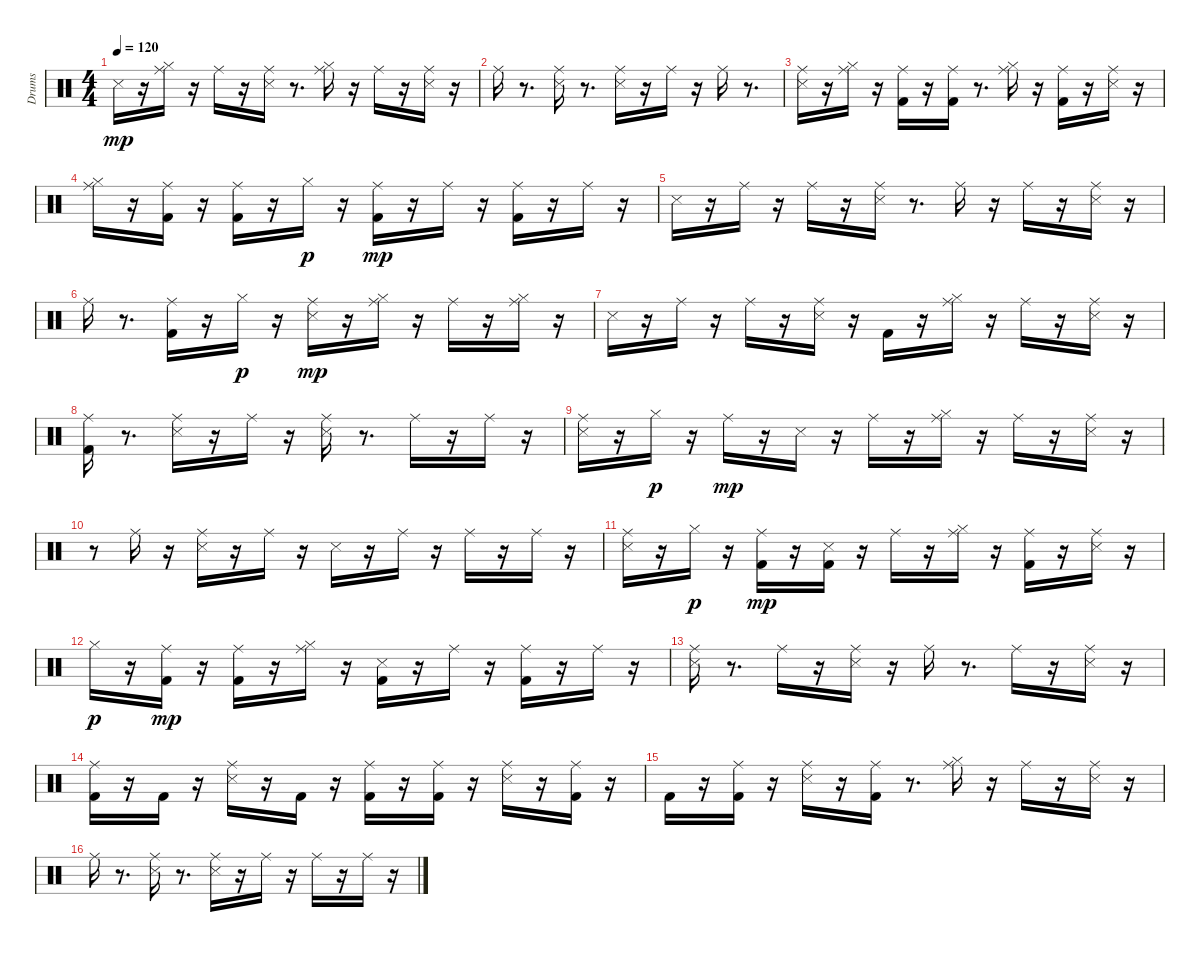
\track ("Drums  " "Drums  ") {instrument percussion}
\staff {score}
\articulation defaults
\ts (4 4)
\tempo 120
\clef neutral
\ks c "Snare (side stick) 3".16{dy mp}
r.16 ("Hi-Hat (closed)" "Ride (middle)").16 r.16 "Ride (middle)".16 r.16 ("Snare (side stick) 3" "Ride (middle)").16 r.8{d} ("Hi-Hat (closed)" "Ride (middle)").16 r.16 "Ride (middle)".16 r.16 ("Snare (side stick) 3" "Ride (middle)").16 r.16 |
"Ride (middle)".16 r.8{d} ("Snare (side stick) 3" "Ride (middle)").16 r.8{d} ("Snare (side stick) 3" "Ride (middle)").16 r.16 "Ride (middle)".16 r.16 "Ride (middle)".16 r.8{d} |
("Snare (side stick) 3" "Ride (middle)").16 r.16 ("Hi-Hat (closed)" "Ride (middle)").16 r.16 ("Kick (hit) 2" "Ride (middle)").16 r.16 ("Kick (hit) 2" "Ride (middle)").16 r.8{d} ("Hi-Hat (closed)" "Ride (middle)").16 r.16 ("Kick (hit) 2" "Ride (middle)").16 r.16 ("Snare (side stick) 3" "Ride (middle)").16 r.16 |
("Hi-Hat (closed)" "Ride (middle)").16 r.16 ("Kick (hit) 2" "Ride (middle)").16 r.16 ("Kick (hit) 2" "Ride (middle)").16 r.16 "Hi-Hat (closed)".16{dy p} r.16 ("Kick (hit) 2" "Ride (middle)").16{dy mp} r.16 "Ride (middle)".16 r.16 ("Kick (hit) 2" "Ride (middle)").16 r.16 "Ride (middle)".16 r.16 |
"Snare (side stick) 3".16 r.16 "Ride (middle)".16 r.16 "Ride (middle)".16 r.16 ("Snare (side stick) 3" "Ride (middle)").16 r.8{d} "Ride (middle)".16 r.16 "Ride (middle)".16 r.16 ("Snare (side stick) 3" "Ride (middle)").16 r.16 |
"Ride (middle)".16 r.8{d} ("Kick (hit) 2" "Ride (middle)").16 r.16 "Hi-Hat (closed)".16{dy p} r.16 ("Snare (side stick) 3" "Ride (middle)").16{dy mp} r.16 ("Hi-Hat (closed)" "Ride (middle)").16 r.16 "Ride (middle)".16 r.16 ("Hi-Hat (closed)" "Ride (middle)").16 r.16 |
"Snare (side stick) 3".16 r.16 "Ride (middle)".16 r.16 "Ride (middle)".16 r.16 ("Snare (side stick) 3" "Ride (middle)").16 r.16 "Kick (hit) 2".16 r.16 ("Hi-Hat (closed)" "Ride (middle)").16 r.16 "Ride (middle)".16 r.16 ("Snare (side stick) 3" "Ride (middle)").16 r.16 |
("Kick (hit) 2" "Ride (middle)").16 r.8{d} ("Snare (side stick) 3" "Ride (middle)").16 r.16 "Ride (middle)".16 r.16 ("Snare (side stick) 3" "Ride (middle)").16 r.8{d} "Ride (middle)".16 r.16 "Ride (middle)".16 r.16 |
("Snare (side stick) 3" "Ride (middle)").16 r.16 "Hi-Hat (closed)".16{dy p} r.16 "Ride (middle)".16{dy mp} r.16 "Snare (side stick) 3".16 r.16 "Ride (middle)".16 r.16 ("Hi-Hat (closed)" "Ride (middle)").16 r.16 "Ride (middle)".16 r.16 ("Snare (side stick) 3" "Ride (middle)").16 r.16 |
r.8 "Ride (middle)".16 r.16 ("Snare (side stick) 3" "Ride (middle)").16 r.16 "Ride (middle)".16 r.16 "Snare (side stick) 3".16 r.16 "Ride (middle)".16 r.16 "Ride (middle)".16 r.16 "Ride (middle)".16 r.16 |
("Snare (side stick) 3" "Ride (middle)").16 r.16 "Hi-Hat (closed)".16{dy p} r.16 ("Kick (hit) 2" "Ride (middle)").16{dy mp} r.16 ("Snare (side stick) 3" "Kick (hit) 2").16 r.16 "Ride (middle)".16 r.16 ("Hi-Hat (closed)" "Ride (middle)").16 r.16 ("Kick (hit) 2" "Ride (middle)").16 r.16 ("Snare (side stick) 3" "Ride (middle)").16 r.16 |
"Hi-Hat (closed)".16{dy p} r.16 ("Kick (hit) 2" "Ride (middle)").16{dy mp} r.16 ("Kick (hit) 2" "Ride (middle)").16 r.16 ("Hi-Hat (closed)" "Ride (middle)").16 r.16 ("Snare (side stick) 3" "Kick (hit) 2").16 r.16 "Ride (middle)".16 r.16 ("Kick (hit) 2" "Ride (middle)").16 r.16 "Ride (middle)".16 r.16 |
("Snare (side stick) 3" "Ride (middle)").16 r.8{d} "Ride (middle)".16 r.16 ("Snare (side stick) 3" "Ride (middle)").16 r.16 "Ride (middle)".16 r.8{d} "Ride (middle)".16 r.16 ("Snare (side stick) 3" "Ride (middle)").16 r.16 |
("Kick (hit) 2" "Ride (middle)").16 r.16 "Kick (hit) 2".16 r.16 ("Snare (side stick) 3" "Ride (middle)").16 r.16 "Kick (hit) 2".16 r.16 ("Kick (hit) 2" "Ride (middle)").16 r.16 ("Kick (hit) 2" "Ride (middle)").16 r.16 ("Snare (side stick) 3" "Ride (middle)").16 r.16 ("Kick (hit) 2" "Ride (middle)").16 r.16 |
"Kick (hit) 2".16 r.16 ("Kick (hit) 2" "Ride (middle)").16 r.16 ("Snare (side stick) 3" "Ride (middle)").16 r.16 ("Kick (hit) 2" "Ride (middle)").16 r.8{d} ("Hi-Hat (closed)" "Ride (middle)").16 r.16 "Ride (middle)".16 r.16 ("Snare (side stick) 3" "Ride (middle)").16 r.16 |
"Ride (middle)".16 r.8{d} ("Snare (side stick) 3" "Ride (middle)").16 r.8{d} ("Snare (side stick) 3" "Ride (middle)").16 r.16 "Ride (middle)".16 r.16 "Ride (middle)".16 r.16 "Ride (middle)".16 r.16
